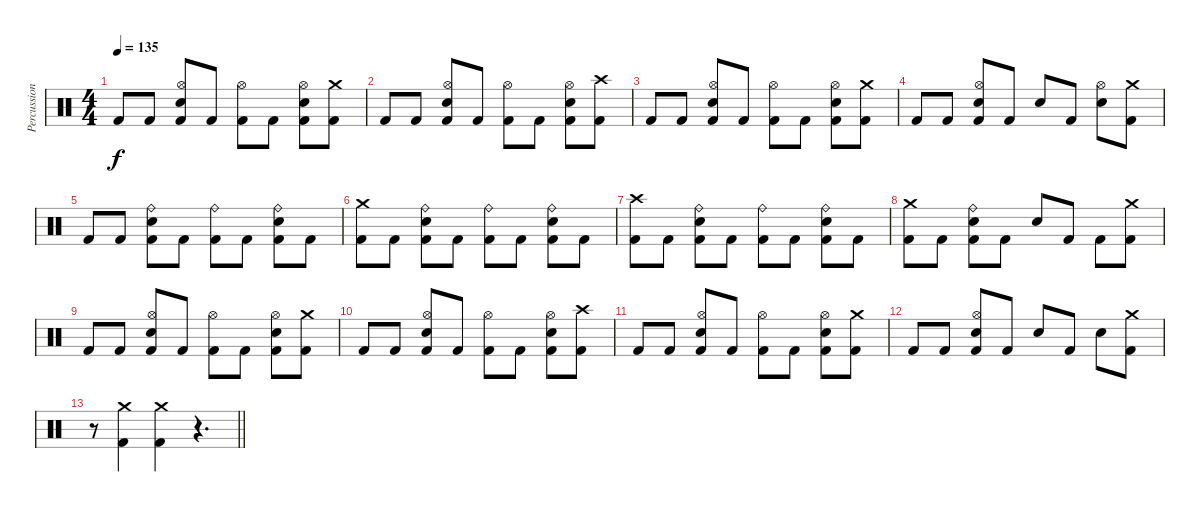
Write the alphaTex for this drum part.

\track ("Percussion" "Percussion") {instrument percussion}
\staff {score}
\articulation defaults
\ts (4 4)
\tempo 135
\clef neutral
\ks c "Kick (hit) 2".8{dy f} "Kick (hit) 2".8
("Hi-Hat (open)" "Electric Snare (hit)" "Kick (hit) 2").8 "Kick (hit) 2".8 ("Hi-Hat (open)" "Kick (hit) 2").8 "Kick (hit) 2".8 ("Hi-Hat (open)" "Electric Snare (hit)" "Kick (hit) 2").8 ("Crash medium (hit)" "Kick (hit) 2").8 |
"Kick (hit) 2".8 "Kick (hit) 2".8 ("Hi-Hat (open)" "Electric Snare (hit)" "Kick (hit) 2").8 "Kick (hit) 2".8 ("Hi-Hat (open)" "Kick (hit) 2").8 "Kick (hit) 2".8 ("Hi-Hat (open)" "Electric Snare (hit)" "Kick (hit) 2").8 ("Crash high (hit)" "Kick (hit) 2").8 |
"Kick (hit) 2".8 "Kick (hit) 2".8 ("Hi-Hat (open)" "Electric Snare (hit)" "Kick (hit) 2").8 "Kick (hit) 2".8 ("Hi-Hat (open)" "Kick (hit) 2").8 "Kick (hit) 2".8 ("Hi-Hat (open)" "Electric Snare (hit)" "Kick (hit) 2").8 ("Crash medium (hit)" "Kick (hit) 2").8 |
"Kick (hit) 2".8 "Kick (hit) 2".8 ("Hi-Hat (open)" "Electric Snare (hit)" "Kick (hit) 2").8 "Kick (hit) 2".8 "Electric Snare (hit)".8 "Kick (hit) 2".8 ("Hi-Hat (open)" "Electric Snare (hit)").8 ("Crash medium (hit)" "Kick (hit) 2").8 |
"Kick (hit) 2".8 "Kick (hit) 2".8 ("Ride (bell)" "Electric Snare (hit)" "Kick (hit) 2").8 "Kick (hit) 2".8 ("Ride (bell)" "Kick (hit) 2").8 "Kick (hit) 2".8 ("Ride (bell)" "Electric Snare (hit)" "Kick (hit) 2").8 "Kick (hit) 2".8 |
("Crash medium (hit)" "Kick (hit) 2").8 "Kick (hit) 2".8 ("Ride (bell)" "Electric Snare (hit)" "Kick (hit) 2").8 "Kick (hit) 2".8 ("Ride (bell)" "Kick (hit) 2").8 "Kick (hit) 2".8 ("Ride (bell)" "Electric Snare (hit)" "Kick (hit) 2").8 "Kick (hit) 2".8 |
("Crash high (hit)" "Kick (hit) 2").8 "Kick (hit) 2".8 ("Ride (bell)" "Electric Snare (hit)" "Kick (hit) 2").8 "Kick (hit) 2".8 ("Ride (bell)" "Kick (hit) 2").8 "Kick (hit) 2".8 ("Ride (bell)" "Electric Snare (hit)" "Kick (hit) 2").8 "Kick (hit) 2".8 |
("Crash medium (hit)" "Kick (hit) 2").8 "Kick (hit) 2".8 ("Ride (bell)" "Electric Snare (hit)" "Kick (hit) 2").8 "Kick (hit) 2".8 "Electric Snare (hit)".8 "Kick (hit) 2".8 "Kick (hit) 2".8 ("Crash medium (hit)" "Kick (hit) 2").8 |
"Kick (hit) 2".8 "Kick (hit) 2".8 ("Hi-Hat (open)" "Electric Snare (hit)" "Kick (hit) 2").8 "Kick (hit) 2".8 ("Hi-Hat (open)" "Kick (hit) 2").8 "Kick (hit) 2".8 ("Hi-Hat (open)" "Electric Snare (hit)" "Kick (hit) 2").8 ("Crash medium (hit)" "Kick (hit) 2").8 |
"Kick (hit) 2".8 "Kick (hit) 2".8 ("Hi-Hat (open)" "Electric Snare (hit)" "Kick (hit) 2").8 "Kick (hit) 2".8 ("Hi-Hat (open)" "Kick (hit) 2").8 "Kick (hit) 2".8 ("Hi-Hat (open)" "Electric Snare (hit)" "Kick (hit) 2").8 ("Crash high (hit)" "Kick (hit) 2").8 |
"Kick (hit) 2".8 "Kick (hit) 2".8 ("Hi-Hat (open)" "Electric Snare (hit)" "Kick (hit) 2").8 "Kick (hit) 2".8 ("Hi-Hat (open)" "Kick (hit) 2").8 "Kick (hit) 2".8 ("Hi-Hat (open)" "Electric Snare (hit)" "Kick (hit) 2").8 ("Crash medium (hit)" "Kick (hit) 2").8 |
"Kick (hit) 2".8 "Kick (hit) 2".8 ("Hi-Hat (open)" "Electric Snare (hit)" "Kick (hit) 2").8 "Kick (hit) 2".8 "Electric Snare (hit)".8 "Kick (hit) 2".8 "Electric Snare (hit)".8 ("Crash medium (hit)" "Kick (hit) 2").8 |
\barLineRight lightlight
r.8 ("Crash medium (hit)" "Kick (hit) 2").4 ("Crash medium (hit)" "Kick (hit) 2").4 r.4{d}
